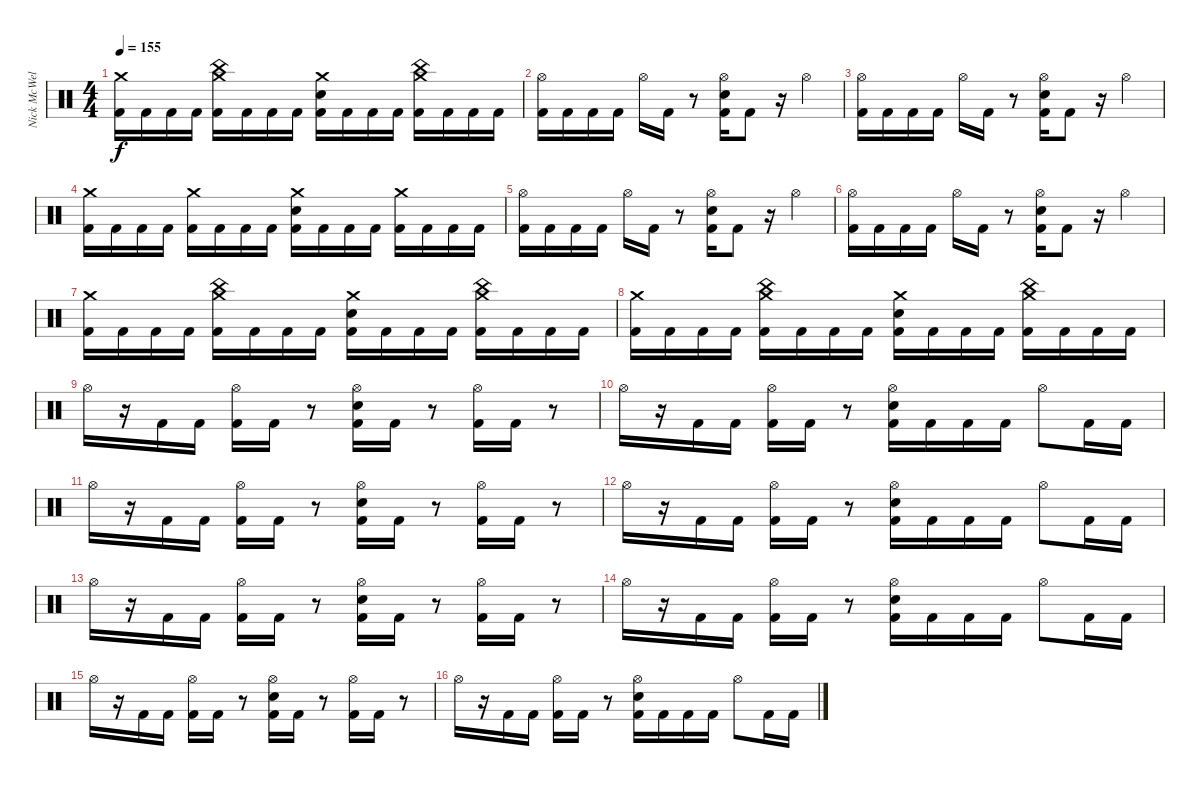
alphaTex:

\track ("Nick McWells" "Nick McWel") {instrument percussion}
\staff {score}
\articulation defaults
\ts (4 4)
\tempo 155
\clef neutral
\ks c
("Crash medium (hit)" "Kick (hit) 2").16{dy f} "Kick (hit) 2".16 "Kick (hit) 2".16 "Kick (hit) 2".16 ("China (hit)" "Crash medium (hit)" "Kick (hit) 2").16 "Kick (hit) 2".16 "Kick (hit) 2".16 "Kick (hit) 2".16 ("Crash medium (hit)" "Electric Snare (hit)" "Kick (hit) 2").16 "Kick (hit) 2".16 "Kick (hit) 2".16 "Kick (hit) 2".16 ("China (hit)" "Crash medium (hit)" "Kick (hit) 2").16 "Kick (hit) 2".16 "Kick (hit) 2".16 "Kick (hit) 2".16 |
("Hi-Hat (open)" "Kick (hit) 2").16 "Kick (hit) 2".16 "Kick (hit) 2".16 "Kick (hit) 2".16 "Hi-Hat (open)".16 "Kick (hit) 2".16 r.8 ("Hi-Hat (open)" "Electric Snare (hit)" "Kick (hit) 2").16 "Kick (hit) 2".8 r.16 "Hi-Hat (open)".4 |
("Hi-Hat (open)" "Kick (hit) 2").16 "Kick (hit) 2".16 "Kick (hit) 2".16 "Kick (hit) 2".16 "Hi-Hat (open)".16 "Kick (hit) 2".16 r.8 ("Hi-Hat (open)" "Electric Snare (hit)" "Kick (hit) 2").16 "Kick (hit) 2".8 r.16 "Hi-Hat (open)".4 |
("Crash medium (hit)" "Kick (hit) 2").16 "Kick (hit) 2".16 "Kick (hit) 2".16 "Kick (hit) 2".16 ("Crash medium (hit)" "Kick (hit) 2").16 "Kick (hit) 2".16 "Kick (hit) 2".16 "Kick (hit) 2".16 ("Crash medium (hit)" "Electric Snare (hit)" "Kick (hit) 2").16 "Kick (hit) 2".16 "Kick (hit) 2".16 "Kick (hit) 2".16 ("Crash medium (hit)" "Kick (hit) 2").16 "Kick (hit) 2".16 "Kick (hit) 2".16 "Kick (hit) 2".16 |
("Hi-Hat (open)" "Kick (hit) 2").16 "Kick (hit) 2".16 "Kick (hit) 2".16 "Kick (hit) 2".16 "Hi-Hat (open)".16 "Kick (hit) 2".16 r.8 ("Hi-Hat (open)" "Electric Snare (hit)" "Kick (hit) 2").16 "Kick (hit) 2".8 r.16 "Hi-Hat (open)".4 |
("Hi-Hat (open)" "Kick (hit) 2").16 "Kick (hit) 2".16 "Kick (hit) 2".16 "Kick (hit) 2".16 "Hi-Hat (open)".16 "Kick (hit) 2".16 r.8 ("Hi-Hat (open)" "Electric Snare (hit)" "Kick (hit) 2").16 "Kick (hit) 2".8 r.16 "Hi-Hat (open)".4 |
("Crash medium (hit)" "Kick (hit) 2").16 "Kick (hit) 2".16 "Kick (hit) 2".16 "Kick (hit) 2".16 ("China (hit)" "Crash medium (hit)" "Kick (hit) 2").16 "Kick (hit) 2".16 "Kick (hit) 2".16 "Kick (hit) 2".16 ("Crash medium (hit)" "Electric Snare (hit)" "Kick (hit) 2").16 "Kick (hit) 2".16 "Kick (hit) 2".16 "Kick (hit) 2".16 ("China (hit)" "Crash medium (hit)" "Kick (hit) 2").16 "Kick (hit) 2".16 "Kick (hit) 2".16 "Kick (hit) 2".16 |
("Crash medium (hit)" "Kick (hit) 2").16 "Kick (hit) 2".16 "Kick (hit) 2".16 "Kick (hit) 2".16 ("China (hit)" "Crash medium (hit)" "Kick (hit) 2").16 "Kick (hit) 2".16 "Kick (hit) 2".16 "Kick (hit) 2".16 ("Crash medium (hit)" "Electric Snare (hit)" "Kick (hit) 2").16 "Kick (hit) 2".16 "Kick (hit) 2".16 "Kick (hit) 2".16 ("China (hit)" "Crash medium (hit)" "Kick (hit) 2").16 "Kick (hit) 2".16 "Kick (hit) 2".16 "Kick (hit) 2".16 |
"Hi-Hat (open)".16 r.16 "Kick (hit) 2".16 "Kick (hit) 2".16 ("Hi-Hat (open)" "Kick (hit) 2").16 "Kick (hit) 2".16 r.8 ("Hi-Hat (open)" "Electric Snare (hit)" "Kick (hit) 2").16 "Kick (hit) 2".16 r.8 ("Hi-Hat (open)" "Kick (hit) 2").16 "Kick (hit) 2".16 r.8 |
"Hi-Hat (open)".16 r.16 "Kick (hit) 2".16 "Kick (hit) 2".16 ("Hi-Hat (open)" "Kick (hit) 2").16 "Kick (hit) 2".16 r.8 ("Hi-Hat (open)" "Electric Snare (hit)" "Kick (hit) 2").16 "Kick (hit) 2".16 "Kick (hit) 2".16 "Kick (hit) 2".16 "Hi-Hat (open)".8 "Kick (hit) 2".16 "Kick (hit) 2".16 |
"Hi-Hat (open)".16 r.16 "Kick (hit) 2".16 "Kick (hit) 2".16 ("Hi-Hat (open)" "Kick (hit) 2").16 "Kick (hit) 2".16 r.8 ("Hi-Hat (open)" "Electric Snare (hit)" "Kick (hit) 2").16 "Kick (hit) 2".16 r.8 ("Hi-Hat (open)" "Kick (hit) 2").16 "Kick (hit) 2".16 r.8 |
"Hi-Hat (open)".16 r.16 "Kick (hit) 2".16 "Kick (hit) 2".16 ("Hi-Hat (open)" "Kick (hit) 2").16 "Kick (hit) 2".16 r.8 ("Hi-Hat (open)" "Electric Snare (hit)" "Kick (hit) 2").16 "Kick (hit) 2".16 "Kick (hit) 2".16 "Kick (hit) 2".16 "Hi-Hat (open)".8 "Kick (hit) 2".16 "Kick (hit) 2".16 |
"Hi-Hat (open)".16 r.16 "Kick (hit) 2".16 "Kick (hit) 2".16 ("Hi-Hat (open)" "Kick (hit) 2").16 "Kick (hit) 2".16 r.8 ("Hi-Hat (open)" "Electric Snare (hit)" "Kick (hit) 2").16 "Kick (hit) 2".16 r.8 ("Hi-Hat (open)" "Kick (hit) 2").16 "Kick (hit) 2".16 r.8 |
"Hi-Hat (open)".16 r.16 "Kick (hit) 2".16 "Kick (hit) 2".16 ("Hi-Hat (open)" "Kick (hit) 2").16 "Kick (hit) 2".16 r.8 ("Hi-Hat (open)" "Electric Snare (hit)" "Kick (hit) 2").16 "Kick (hit) 2".16 "Kick (hit) 2".16 "Kick (hit) 2".16 "Hi-Hat (open)".8 "Kick (hit) 2".16 "Kick (hit) 2".16 |
"Hi-Hat (open)".16 r.16 "Kick (hit) 2".16 "Kick (hit) 2".16 ("Hi-Hat (open)" "Kick (hit) 2").16 "Kick (hit) 2".16 r.8 ("Hi-Hat (open)" "Electric Snare (hit)" "Kick (hit) 2").16 "Kick (hit) 2".16 r.8 ("Hi-Hat (open)" "Kick (hit) 2").16 "Kick (hit) 2".16 r.8 |
"Hi-Hat (open)".16 r.16 "Kick (hit) 2".16 "Kick (hit) 2".16 ("Hi-Hat (open)" "Kick (hit) 2").16 "Kick (hit) 2".16 r.8 ("Hi-Hat (open)" "Electric Snare (hit)" "Kick (hit) 2").16 "Kick (hit) 2".16 "Kick (hit) 2".16 "Kick (hit) 2".16 "Hi-Hat (open)".8 "Kick (hit) 2".16 "Kick (hit) 2".16
